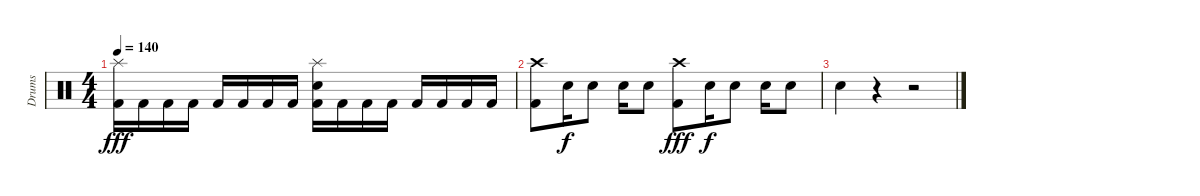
\track ("Drums" "Drums") {instrument percussion}
\staff {score}
\articulation defaults
\ts (4 4)
\tempo 140
\clef neutral
\ks c
("Splash (hit)" "Kick (hit) 2").16{dy fff} "Kick (hit) 2".16 "Kick (hit) 2".16 "Kick (hit) 2".16 "Kick (hit) 2".16 "Kick (hit) 2".16 "Kick (hit) 2".16 "Kick (hit) 2".16 ("Splash (hit)" "Electric Snare (hit)" "Kick (hit) 2").16 "Kick (hit) 2".16 "Kick (hit) 2".16 "Kick (hit) 2".16 "Kick (hit) 2".16 "Kick (hit) 2".16 "Kick (hit) 2".16 "Kick (hit) 2".16 |
("Crash high (hit)" "Kick (hit) 2").8 "Electric Snare (hit)".16{dy f} "Electric Snare (hit)".8 "Electric Snare (hit)".16 "Electric Snare (hit)".8 ("Crash high (hit)" "Kick (hit) 2").8{dy fff} "Electric Snare (hit)".16{dy f} "Electric Snare (hit)".8 "Electric Snare (hit)".16 "Electric Snare (hit)".8 |
"Electric Snare (hit)".4 r.4 r.2
